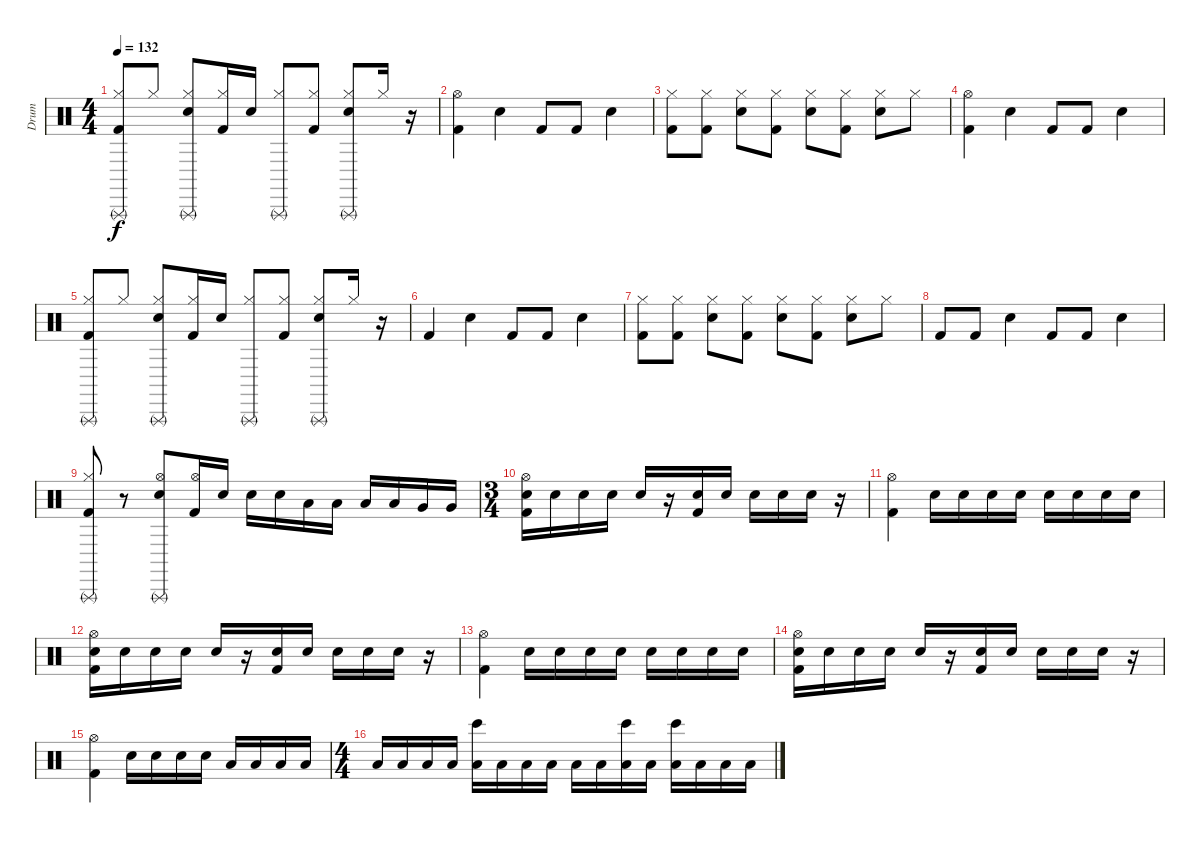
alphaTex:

\track ("Drum" "Drum") {instrument percussion}
\staff {score}
\articulation defaults
\ts (4 4)
\tempo 132
\clef neutral
\ks c
("Triangle (rnute)" "Hi-Hat (closed)" "Kick (hit) 2").8{dy f} "Hi-Hat (closed)".8 ("Triangle (rnute)" "Hi-Hat (closed)" "Snare (hit) 2").8 ("Hi-Hat (closed)" "Kick (hit) 2").16 "Snare (hit) 2".16 ("Triangle (rnute)" "Hi-Hat (closed)").8 ("Hi-Hat (closed)" "Kick (hit) 2").8 ("Triangle (rnute)" "Hi-Hat (closed)" "Snare (hit) 2").8 "Hi-Hat (closed)".16 r.16 |
("Hi-Hat (open)" "Kick (hit) 2").4 "Snare (hit) 2".4 "Kick (hit) 2".8 "Kick (hit) 2".8 "Snare (hit) 2".4 |
("Hi-Hat (closed)" "Kick (hit) 2").8 ("Hi-Hat (closed)" "Kick (hit) 2").8 ("Hi-Hat (closed)" "Snare (hit) 2").8 ("Hi-Hat (closed)" "Kick (hit) 2").8 ("Hi-Hat (closed)" "Snare (hit) 2").8 ("Hi-Hat (closed)" "Kick (hit) 2").8 ("Hi-Hat (closed)" "Snare (hit) 2").8 "Hi-Hat (closed)".8 |
("Hi-Hat (open)" "Kick (hit) 2").4 "Snare (hit) 2".4 "Kick (hit) 2".8 "Kick (hit) 2".8 "Snare (hit) 2".4 |
("Triangle (rnute)" "Hi-Hat (closed)" "Kick (hit) 2").8 "Hi-Hat (closed)".8 ("Triangle (rnute)" "Hi-Hat (closed)" "Snare (hit) 2").8 ("Hi-Hat (closed)" "Kick (hit) 2").16 "Snare (hit) 2".16 ("Triangle (rnute)" "Hi-Hat (closed)").8 ("Hi-Hat (closed)" "Kick (hit) 2").8 ("Triangle (rnute)" "Hi-Hat (closed)" "Snare (hit) 2").8 "Hi-Hat (closed)".16 r.16 |
"Kick (hit) 2".4 "Snare (hit) 2".4 "Kick (hit) 2".8 "Kick (hit) 2".8 "Snare (hit) 2".4 |
("Hi-Hat (closed)" "Kick (hit) 2").8 ("Hi-Hat (closed)" "Kick (hit) 2").8 ("Hi-Hat (closed)" "Snare (hit) 2").8 ("Hi-Hat (closed)" "Kick (hit) 2").8 ("Hi-Hat (closed)" "Snare (hit) 2").8 ("Hi-Hat (closed)" "Kick (hit) 2").8 ("Hi-Hat (closed)" "Snare (hit) 2").8 "Hi-Hat (closed)".8 |
"Kick (hit) 2".8 "Kick (hit) 2".8 "Snare (hit) 2".4 "Kick (hit) 2".8 "Kick (hit) 2".8 "Snare (hit) 2".4 |
("Triangle (rnute)" "Hi-Hat (closed)" "Kick (hit) 2").8{volume 8} r.8 ("Triangle (rnute)" "Hi-Hat (open)" "Snare (hit) 2").8 ("Hi-Hat (open)" "Kick (hit) 2").16 "Snare (hit) 2".16 "Snare (hit) 2".16 "Snare (hit) 2".16 "Low Floor Tom (hit)".16 "Low Floor Tom (hit)".16 "Low Floor Tom (hit)".16 "Low Floor Tom (hit)".16 "Very Low Tom (hit)".16 "Very Low Tom (hit)".16 |
\ts (3 4)
("Hi-Hat (open)" "Snare (hit) 2" "Kick (hit) 2").16 "Snare (hit) 2".16 "Snare (hit) 2".16 "Snare (hit) 2".16 "Electric Snare (hit)".16 r.16 ("Snare (hit) 2" "Kick (hit) 2").16 "Snare (hit) 2".16 "Snare (hit) 2".16 "Snare (hit) 2".16 "Electric Snare (hit)".16 r.16 |
("Hi-Hat (open)" "Kick (hit) 2").4 "Electric Snare (hit)".16 "Electric Snare (hit)".16 "Snare (hit) 2".16 "Snare (hit) 2".16 "Snare (hit) 2".16 "Snare (hit) 2".16 "Snare (hit) 2".16 "Snare (hit) 2".16 |
("Hi-Hat (open)" "Snare (hit) 2" "Kick (hit) 2").16 "Snare (hit) 2".16 "Snare (hit) 2".16 "Snare (hit) 2".16 "Electric Snare (hit)".16 r.16 ("Snare (hit) 2" "Kick (hit) 2").16 "Snare (hit) 2".16 "Snare (hit) 2".16 "Snare (hit) 2".16 "Electric Snare (hit)".16 r.16 |
("Hi-Hat (open)" "Kick (hit) 2").4 "Electric Snare (hit)".16 "Electric Snare (hit)".16 "Snare (hit) 2".16 "Snare (hit) 2".16 "Snare (hit) 2".16 "Snare (hit) 2".16 "Snare (hit) 2".16 "Snare (hit) 2".16 |
("Hi-Hat (open)" "Snare (hit) 2" "Kick (hit) 2").16 "Snare (hit) 2".16 "Snare (hit) 2".16 "Snare (hit) 2".16 "Electric Snare (hit)".16 r.16 ("Snare (hit) 2" "Kick (hit) 2").16 "Snare (hit) 2".16 "Snare (hit) 2".16 "Snare (hit) 2".16 "Electric Snare (hit)".16 r.16 |
("Hi-Hat (open)" "Kick (hit) 2").4 "Snare (hit) 2".16 "Snare (hit) 2".16 "Snare (hit) 2".16 "Snare (hit) 2".16 "Low Tom (hit)".16 "Low Tom (hit)".16 "Low Tom (hit)".16 "Low Tom (hit)".16 |
\ts (4 4)
"Low Tom (hit)".16 "Low Tom (hit)".16 "Low Tom (hit)".16 "Low Tom (hit)".16 ("Bongo High (hit)" "Low Tom (hit)").16 "Low Tom (hit)".16 "Low Tom (hit)".16 "Low Tom (hit)".16 "Low Tom (hit)".16 "Low Tom (hit)".16 ("Bongo High (hit)" "Low Tom (hit)").16 "Low Tom (hit)".16 ("Bongo High (hit)" "Low Tom (hit)").16 "Low Tom (hit)".16 "Low Tom (hit)".16 "Low Tom (hit)".16
